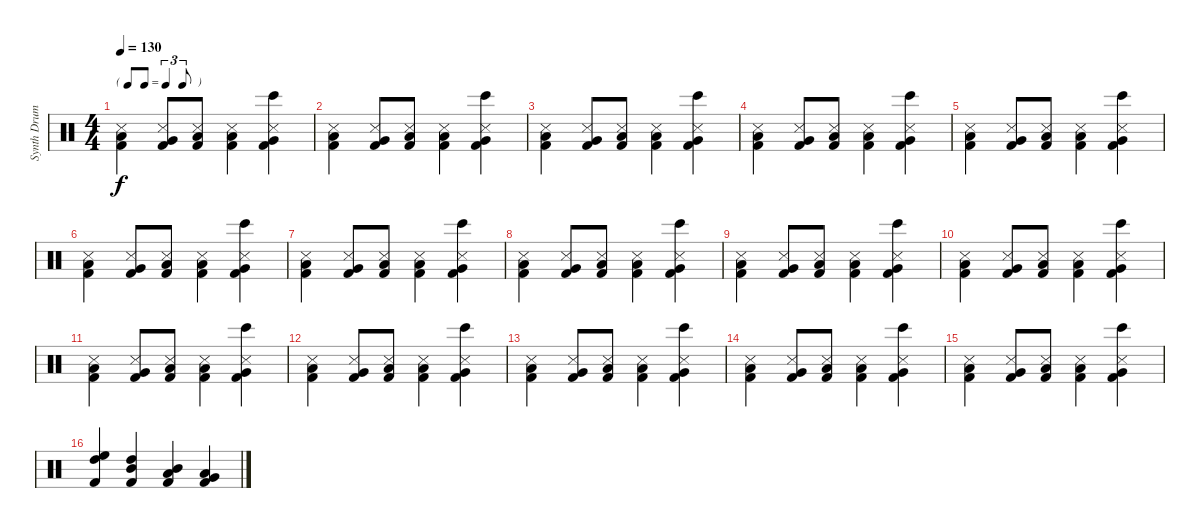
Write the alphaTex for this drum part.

\track ("Synth Drums (Alan Wilder)" "Synth Drum") {instrument percussion}
\staff {score}
\articulation defaults
\ts (4 4)
\tf triplet8th
\tempo 130
\clef neutral
\ks c
("Low Floor Tom (hit)" "Kick (hit) 2" "Snare (side stick) 3").4{dy f} ("Very Low Tom (hit)" "Kick (hit) 2" "Snare (side stick) 3").8 ("Low Floor Tom (hit)" "Kick (hit) 2" "Snare (side stick) 3").8 ("Low Floor Tom (hit)" "Kick (hit) 2" "Snare (side stick) 3").4 ("Bongo High (hit)" "Very Low Tom (hit)" "Kick (hit) 2" "Snare (side stick) 3").4 |
("Low Floor Tom (hit)" "Kick (hit) 2" "Snare (side stick) 3").4 ("Very Low Tom (hit)" "Kick (hit) 2" "Snare (side stick) 3").8 ("Low Floor Tom (hit)" "Kick (hit) 2" "Snare (side stick) 3").8 ("Low Floor Tom (hit)" "Kick (hit) 2" "Snare (side stick) 3").4 ("Bongo High (hit)" "Very Low Tom (hit)" "Kick (hit) 2" "Snare (side stick) 3").4 |
("Low Floor Tom (hit)" "Kick (hit) 2" "Snare (side stick) 3").4 ("Very Low Tom (hit)" "Kick (hit) 2" "Snare (side stick) 3").8 ("Low Floor Tom (hit)" "Kick (hit) 2" "Snare (side stick) 3").8 ("Low Floor Tom (hit)" "Kick (hit) 2" "Snare (side stick) 3").4 ("Bongo High (hit)" "Very Low Tom (hit)" "Kick (hit) 2" "Snare (side stick) 3").4 |
("Low Floor Tom (hit)" "Kick (hit) 2" "Snare (side stick) 3").4 ("Very Low Tom (hit)" "Kick (hit) 2" "Snare (side stick) 3").8 ("Low Floor Tom (hit)" "Kick (hit) 2" "Snare (side stick) 3").8 ("Low Floor Tom (hit)" "Kick (hit) 2" "Snare (side stick) 3").4 ("Bongo High (hit)" "Very Low Tom (hit)" "Kick (hit) 2" "Snare (side stick) 3").4 |
("Low Floor Tom (hit)" "Kick (hit) 2" "Snare (side stick) 3").4 ("Very Low Tom (hit)" "Kick (hit) 2" "Snare (side stick) 3").8 ("Low Floor Tom (hit)" "Kick (hit) 2" "Snare (side stick) 3").8 ("Low Floor Tom (hit)" "Kick (hit) 2" "Snare (side stick) 3").4 ("Bongo High (hit)" "Very Low Tom (hit)" "Kick (hit) 2" "Snare (side stick) 3").4 |
("Low Floor Tom (hit)" "Kick (hit) 2" "Snare (side stick) 3").4 ("Very Low Tom (hit)" "Kick (hit) 2" "Snare (side stick) 3").8 ("Low Floor Tom (hit)" "Kick (hit) 2" "Snare (side stick) 3").8 ("Low Floor Tom (hit)" "Kick (hit) 2" "Snare (side stick) 3").4 ("Bongo High (hit)" "Very Low Tom (hit)" "Kick (hit) 2" "Snare (side stick) 3").4 |
("Low Floor Tom (hit)" "Kick (hit) 2" "Snare (side stick) 3").4 ("Very Low Tom (hit)" "Kick (hit) 2" "Snare (side stick) 3").8 ("Low Floor Tom (hit)" "Kick (hit) 2" "Snare (side stick) 3").8 ("Low Floor Tom (hit)" "Kick (hit) 2" "Snare (side stick) 3").4 ("Bongo High (hit)" "Very Low Tom (hit)" "Kick (hit) 2" "Snare (side stick) 3").4 |
("Low Floor Tom (hit)" "Kick (hit) 2" "Snare (side stick) 3").4 ("Very Low Tom (hit)" "Kick (hit) 2" "Snare (side stick) 3").8 ("Low Floor Tom (hit)" "Kick (hit) 2" "Snare (side stick) 3").8 ("Low Floor Tom (hit)" "Kick (hit) 2" "Snare (side stick) 3").4 ("Bongo High (hit)" "Very Low Tom (hit)" "Kick (hit) 2" "Snare (side stick) 3").4 |
("Low Floor Tom (hit)" "Kick (hit) 2" "Snare (side stick) 3").4 ("Very Low Tom (hit)" "Kick (hit) 2" "Snare (side stick) 3").8 ("Low Floor Tom (hit)" "Kick (hit) 2" "Snare (side stick) 3").8 ("Low Floor Tom (hit)" "Kick (hit) 2" "Snare (side stick) 3").4 ("Bongo High (hit)" "Very Low Tom (hit)" "Kick (hit) 2" "Snare (side stick) 3").4 |
("Low Floor Tom (hit)" "Kick (hit) 2" "Snare (side stick) 3").4 ("Very Low Tom (hit)" "Kick (hit) 2" "Snare (side stick) 3").8 ("Low Floor Tom (hit)" "Kick (hit) 2" "Snare (side stick) 3").8 ("Low Floor Tom (hit)" "Kick (hit) 2" "Snare (side stick) 3").4 ("Bongo High (hit)" "Very Low Tom (hit)" "Kick (hit) 2" "Snare (side stick) 3").4 |
("Low Floor Tom (hit)" "Kick (hit) 2" "Snare (side stick) 3").4 ("Very Low Tom (hit)" "Kick (hit) 2" "Snare (side stick) 3").8 ("Low Floor Tom (hit)" "Kick (hit) 2" "Snare (side stick) 3").8 ("Low Floor Tom (hit)" "Kick (hit) 2" "Snare (side stick) 3").4 ("Bongo High (hit)" "Very Low Tom (hit)" "Kick (hit) 2" "Snare (side stick) 3").4 |
("Low Floor Tom (hit)" "Kick (hit) 2" "Snare (side stick) 3").4 ("Very Low Tom (hit)" "Kick (hit) 2" "Snare (side stick) 3").8 ("Low Floor Tom (hit)" "Kick (hit) 2" "Snare (side stick) 3").8 ("Low Floor Tom (hit)" "Kick (hit) 2" "Snare (side stick) 3").4 ("Bongo High (hit)" "Very Low Tom (hit)" "Kick (hit) 2" "Snare (side stick) 3").4 |
("Low Floor Tom (hit)" "Kick (hit) 2" "Snare (side stick) 3").4 ("Very Low Tom (hit)" "Kick (hit) 2" "Snare (side stick) 3").8 ("Low Floor Tom (hit)" "Kick (hit) 2" "Snare (side stick) 3").8 ("Low Floor Tom (hit)" "Kick (hit) 2" "Snare (side stick) 3").4 ("Bongo High (hit)" "Very Low Tom (hit)" "Kick (hit) 2" "Snare (side stick) 3").4 |
("Low Floor Tom (hit)" "Kick (hit) 2" "Snare (side stick) 3").4 ("Very Low Tom (hit)" "Kick (hit) 2" "Snare (side stick) 3").8 ("Low Floor Tom (hit)" "Kick (hit) 2" "Snare (side stick) 3").8 ("Low Floor Tom (hit)" "Kick (hit) 2" "Snare (side stick) 3").4 ("Bongo High (hit)" "Very Low Tom (hit)" "Kick (hit) 2" "Snare (side stick) 3").4 |
("Low Floor Tom (hit)" "Kick (hit) 2" "Snare (side stick) 3").4 ("Very Low Tom (hit)" "Kick (hit) 2" "Snare (side stick) 3").8 ("Low Floor Tom (hit)" "Kick (hit) 2" "Snare (side stick) 3").8 ("Low Floor Tom (hit)" "Kick (hit) 2" "Snare (side stick) 3").4 ("Bongo High (hit)" "Very Low Tom (hit)" "Kick (hit) 2" "Snare (side stick) 3").4 |
("High Floor Tom (hit)" "High Tom (hit)" "Kick (hit) 2").4 ("High Tom (hit)" "Mid Tom (hit)" "Kick (hit) 2").4 ("Mid Tom (hit)" "Low Tom (hit)" "Kick (hit) 2").4 ("Low Tom (hit)" "Very Low Tom (hit)" "Kick (hit) 2").4
